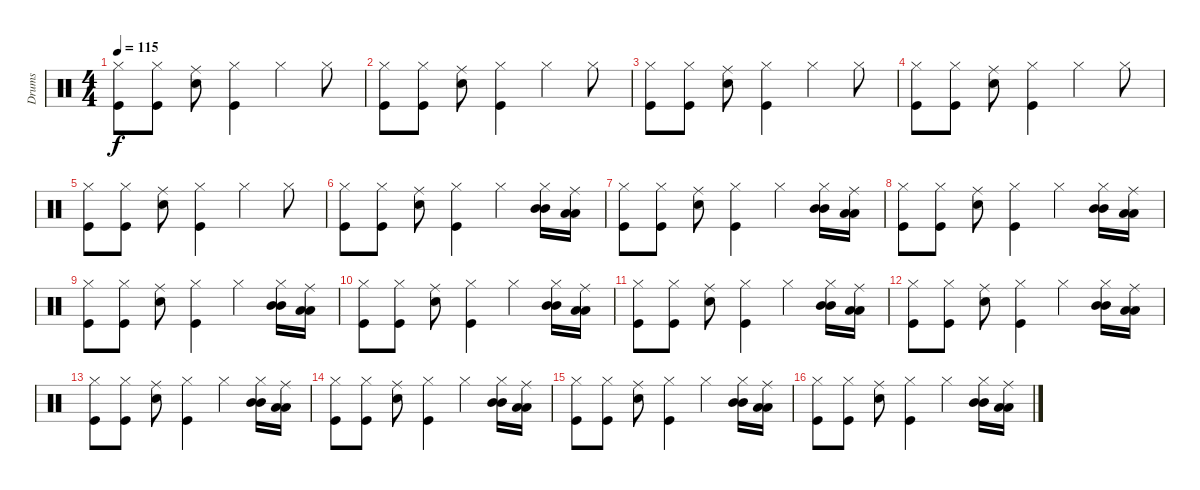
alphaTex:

\track ("Drums" "Drums") {instrument percussion}
\staff {score}
\articulation defaults
\ts (4 4)
\tempo 115
\clef neutral
\ks c
("Hi-Hat (closed)" "Kick (hit)").8{dy f} ("Hi-Hat (closed)" "Kick (hit)").8 ("Ride (middle)" "Electric Snare (hit)").8 ("Hi-Hat (closed)" "Kick (hit)").4 "Hi-Hat (closed)".4 "Hi-Hat (closed)".8 |
("Hi-Hat (closed)" "Kick (hit)").8 ("Hi-Hat (closed)" "Kick (hit)").8 ("Ride (middle)" "Electric Snare (hit)").8 ("Hi-Hat (closed)" "Kick (hit)").4 "Hi-Hat (closed)".4 "Hi-Hat (closed)".8 |
("Hi-Hat (closed)" "Kick (hit)").8 ("Hi-Hat (closed)" "Kick (hit)").8 ("Ride (middle)" "Electric Snare (hit)").8 ("Hi-Hat (closed)" "Kick (hit)").4 "Hi-Hat (closed)".4 "Hi-Hat (closed)".8 |
("Hi-Hat (closed)" "Kick (hit)").8 ("Hi-Hat (closed)" "Kick (hit)").8 ("Ride (middle)" "Electric Snare (hit)").8 ("Hi-Hat (closed)" "Kick (hit)").4 "Hi-Hat (closed)".4 "Hi-Hat (closed)".8 |
("Hi-Hat (closed)" "Kick (hit)").8 ("Hi-Hat (closed)" "Kick (hit)").8 ("Ride (middle)" "Electric Snare (hit)").8 ("Hi-Hat (closed)" "Kick (hit)").4 "Hi-Hat (closed)".4 "Hi-Hat (closed)".8 |
("Hi-Hat (closed)" "Kick (hit)").8 ("Hi-Hat (closed)" "Kick (hit)").8 ("Ride (middle)" "Electric Snare (hit)").8 ("Hi-Hat (closed)" "Kick (hit)").4 "Hi-Hat (closed)".4 ("Hi-Hat (closed)" "Mid Tom (hit)" "Mid Tom (hit)").16 ("Ride (middle)" "Low Tom (hit)" "Low Tom (hit)").16 |
("Hi-Hat (closed)" "Kick (hit)").8 ("Hi-Hat (closed)" "Kick (hit)").8 ("Ride (middle)" "Electric Snare (hit)").8 ("Hi-Hat (closed)" "Kick (hit)").4 "Hi-Hat (closed)".4 ("Hi-Hat (closed)" "Mid Tom (hit)" "Mid Tom (hit)").16 ("Ride (middle)" "Low Tom (hit)" "Low Tom (hit)").16 |
("Hi-Hat (closed)" "Kick (hit)").8 ("Hi-Hat (closed)" "Kick (hit)").8 ("Ride (middle)" "Electric Snare (hit)").8 ("Hi-Hat (closed)" "Kick (hit)").4 "Hi-Hat (closed)".4 ("Hi-Hat (closed)" "Mid Tom (hit)" "Mid Tom (hit)").16 ("Ride (middle)" "Low Tom (hit)" "Low Tom (hit)").16 |
("Hi-Hat (closed)" "Kick (hit)").8 ("Hi-Hat (closed)" "Kick (hit)").8 ("Ride (middle)" "Electric Snare (hit)").8 ("Hi-Hat (closed)" "Kick (hit)").4 "Hi-Hat (closed)".4 ("Hi-Hat (closed)" "Mid Tom (hit)" "Mid Tom (hit)").16 ("Ride (middle)" "Low Tom (hit)" "Low Tom (hit)").16 |
("Hi-Hat (closed)" "Kick (hit)").8 ("Hi-Hat (closed)" "Kick (hit)").8 ("Ride (middle)" "Electric Snare (hit)").8 ("Hi-Hat (closed)" "Kick (hit)").4 "Hi-Hat (closed)".4 ("Hi-Hat (closed)" "Mid Tom (hit)" "Mid Tom (hit)").16 ("Ride (middle)" "Low Tom (hit)" "Low Tom (hit)").16 |
("Hi-Hat (closed)" "Kick (hit)").8 ("Hi-Hat (closed)" "Kick (hit)").8 ("Ride (middle)" "Electric Snare (hit)").8 ("Hi-Hat (closed)" "Kick (hit)").4 "Hi-Hat (closed)".4 ("Hi-Hat (closed)" "Mid Tom (hit)" "Mid Tom (hit)").16 ("Ride (middle)" "Low Tom (hit)" "Low Tom (hit)").16 |
("Hi-Hat (closed)" "Kick (hit)").8 ("Hi-Hat (closed)" "Kick (hit)").8 ("Ride (middle)" "Electric Snare (hit)").8 ("Hi-Hat (closed)" "Kick (hit)").4 "Hi-Hat (closed)".4 ("Hi-Hat (closed)" "Mid Tom (hit)" "Mid Tom (hit)").16 ("Ride (middle)" "Low Tom (hit)" "Low Tom (hit)").16 |
("Hi-Hat (closed)" "Kick (hit)").8 ("Hi-Hat (closed)" "Kick (hit)").8 ("Ride (middle)" "Electric Snare (hit)").8 ("Hi-Hat (closed)" "Kick (hit)").4 "Hi-Hat (closed)".4 ("Hi-Hat (closed)" "Mid Tom (hit)" "Mid Tom (hit)").16 ("Ride (middle)" "Low Tom (hit)" "Low Tom (hit)").16 |
("Hi-Hat (closed)" "Kick (hit)").8 ("Hi-Hat (closed)" "Kick (hit)").8 ("Ride (middle)" "Electric Snare (hit)").8 ("Hi-Hat (closed)" "Kick (hit)").4 "Hi-Hat (closed)".4 ("Hi-Hat (closed)" "Mid Tom (hit)" "Mid Tom (hit)").16 ("Ride (middle)" "Low Tom (hit)" "Low Tom (hit)").16 |
("Hi-Hat (closed)" "Kick (hit)").8 ("Hi-Hat (closed)" "Kick (hit)").8 ("Ride (middle)" "Electric Snare (hit)").8 ("Hi-Hat (closed)" "Kick (hit)").4 "Hi-Hat (closed)".4 ("Hi-Hat (closed)" "Mid Tom (hit)" "Mid Tom (hit)").16 ("Ride (middle)" "Low Tom (hit)" "Low Tom (hit)").16 |
("Hi-Hat (closed)" "Kick (hit)").8 ("Hi-Hat (closed)" "Kick (hit)").8 ("Ride (middle)" "Electric Snare (hit)").8 ("Hi-Hat (closed)" "Kick (hit)").4 "Hi-Hat (closed)".4 ("Hi-Hat (closed)" "Mid Tom (hit)" "Mid Tom (hit)").16 ("Ride (middle)" "Low Tom (hit)" "Low Tom (hit)").16
